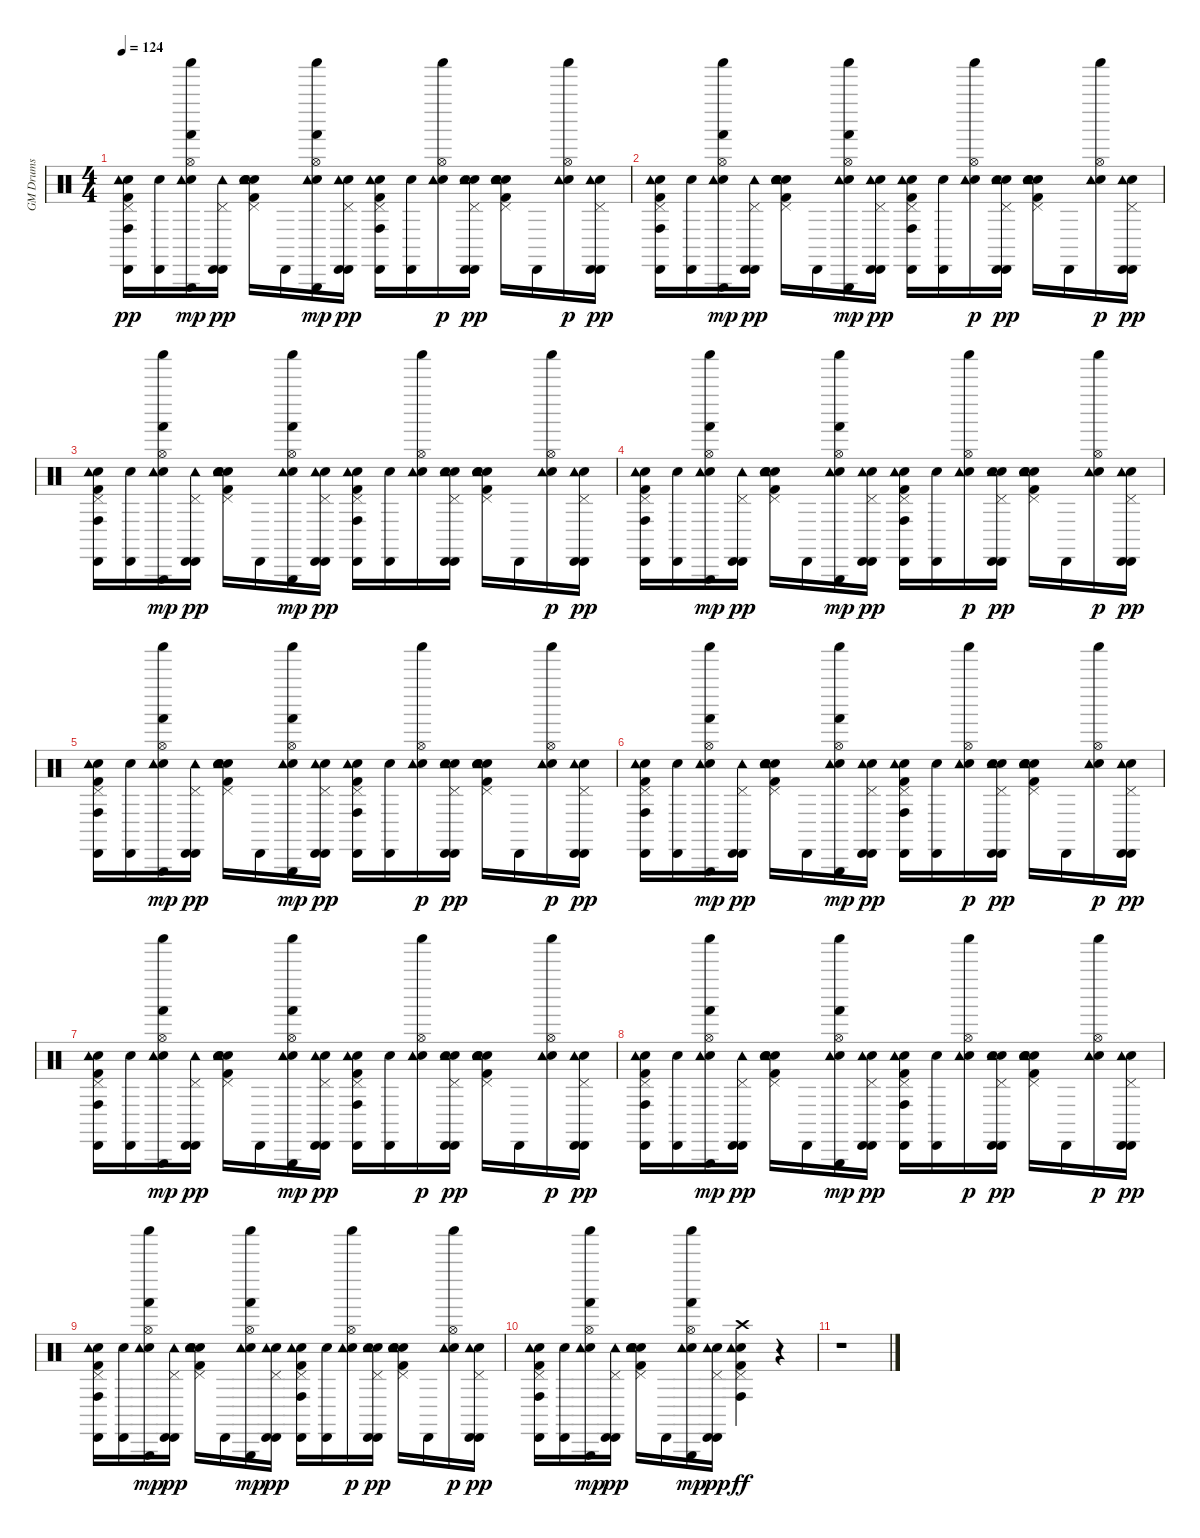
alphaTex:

\track ("GM Drums" "GM Drums") {instrument percussion}
\staff {score}
\articulation defaults
\ts (4 4)
\tempo 124
\clef neutral
\ks c
("Snare (hit)" "Kick (hit) 2" "Pedal Hi-Hat (hit)" "Tambourine (hit)" "Conga high (hit)" "Cabasa (hit)").16{dy pp} ("Snare (hit)" "Cabasa (hit)").16 ("Snare (hit)" "Hi-Hat (open)" "Tambourine (hit)" "Hand (hit)" "Triangle (hit)" "Shaker (hit)").16{dy mp} ("Pedal Hi-Hat (hit)" "Tambourine (hit)" "Cabasa (hit)" "Cabasa (hit)").16{dy pp} ("Snare (hit)" "Kick (hit) 2" "Snare (hit) 2" "Hand Clap (hit)" "Pedal Hi-Hat (hit)" "Tambourine (hit)").16 "Cabasa (hit)".16 ("Snare (hit)" "Hi-Hat (open)" "Tambourine (hit)" "Hand (hit)" "Triangle (hit)" "Shaker (hit)").16{dy mp} ("Snare (hit)" "Pedal Hi-Hat (hit)" "Tambourine (hit)" "Cabasa (hit)" "Cabasa (hit)").16{dy pp} ("Snare (hit)" "Kick (hit) 2" "Pedal Hi-Hat (hit)" "Tambourine (hit)" "Conga high (hit)" "Cabasa (hit)").16 ("Snare (hit)" "Cabasa (hit)").16 ("Snare (hit)" "Hi-Hat (open)" "Tambourine (hit)" "Shaker (hit)").16{dy p} ("Snare (hit) 2" "Hand Clap (hit)" "Pedal Hi-Hat (hit)" "Tambourine (hit)" "Cabasa (hit)" "Cabasa (hit)").16{dy pp} ("Snare (hit)" "Kick (hit) 2" "Snare (hit) 2" "Hand Clap (hit)" "Pedal Hi-Hat (hit)" "Tambourine (hit)").16 "Cabasa (hit)".16 ("Snare (hit)" "Hi-Hat (open)" "Tambourine (hit)" "Shaker (hit)").16{dy p} ("Snare (hit)" "Pedal Hi-Hat (hit)" "Tambourine (hit)" "Cabasa (hit)" "Cabasa (hit)").16{dy pp} |
("Snare (hit)" "Kick (hit) 2" "Pedal Hi-Hat (hit)" "Tambourine (hit)" "Conga high (hit)" "Cabasa (hit)").16 ("Snare (hit)" "Cabasa (hit)").16 ("Snare (hit)" "Hi-Hat (open)" "Tambourine (hit)" "Hand (hit)" "Triangle (hit)" "Shaker (hit)").16{dy mp} ("Pedal Hi-Hat (hit)" "Tambourine (hit)" "Cabasa (hit)" "Cabasa (hit)").16{dy pp} ("Snare (hit)" "Kick (hit) 2" "Snare (hit) 2" "Hand Clap (hit)" "Pedal Hi-Hat (hit)" "Tambourine (hit)").16 "Cabasa (hit)".16 ("Snare (hit)" "Hi-Hat (open)" "Tambourine (hit)" "Hand (hit)" "Triangle (hit)" "Shaker (hit)").16{dy mp} ("Snare (hit)" "Pedal Hi-Hat (hit)" "Tambourine (hit)" "Cabasa (hit)" "Cabasa (hit)").16{dy pp} ("Snare (hit)" "Kick (hit) 2" "Pedal Hi-Hat (hit)" "Tambourine (hit)" "Conga high (hit)" "Cabasa (hit)").16 ("Snare (hit)" "Cabasa (hit)").16 ("Snare (hit)" "Hi-Hat (open)" "Tambourine (hit)" "Shaker (hit)").16{dy p} ("Snare (hit) 2" "Hand Clap (hit)" "Pedal Hi-Hat (hit)" "Tambourine (hit)" "Cabasa (hit)" "Cabasa (hit)").16{dy pp} ("Snare (hit)" "Kick (hit) 2" "Snare (hit) 2" "Hand Clap (hit)" "Pedal Hi-Hat (hit)" "Tambourine (hit)").16 "Cabasa (hit)".16 ("Snare (hit)" "Hi-Hat (open)" "Tambourine (hit)" "Shaker (hit)").16{dy p} ("Snare (hit)" "Pedal Hi-Hat (hit)" "Tambourine (hit)" "Cabasa (hit)" "Cabasa (hit)").16{dy pp} |
("Snare (hit)" "Kick (hit) 2" "Pedal Hi-Hat (hit)" "Tambourine (hit)" "Conga high (hit)" "Cabasa (hit)").16 ("Snare (hit)" "Cabasa (hit)").16 ("Snare (hit)" "Hi-Hat (open)" "Tambourine (hit)" "Hand (hit)" "Triangle (hit)" "Shaker (hit)").16{dy mp} ("Pedal Hi-Hat (hit)" "Tambourine (hit)" "Cabasa (hit)" "Cabasa (hit)").16{dy pp} ("Snare (hit)" "Kick (hit) 2" "Snare (hit) 2" "Hand Clap (hit)" "Pedal Hi-Hat (hit)" "Tambourine (hit)").16 "Cabasa (hit)".16 ("Snare (hit)" "Hi-Hat (open)" "Tambourine (hit)" "Hand (hit)" "Triangle (hit)" "Shaker (hit)").16{dy mp} ("Snare (hit)" "Pedal Hi-Hat (hit)" "Tambourine (hit)" "Cabasa (hit)" "Cabasa (hit)").16{dy pp} ("Snare (hit)" "Kick (hit) 2" "Pedal Hi-Hat (hit)" "Tambourine (hit)" "Conga high (hit)" "Cabasa (hit)").16 ("Snare (hit)" "Cabasa (hit)").16 ("Snare (hit)" "Hi-Hat (open)" "Tambourine (hit)" "Shaker (hit)").16 ("Snare (hit) 2" "Hand Clap (hit)" "Pedal Hi-Hat (hit)" "Tambourine (hit)" "Cabasa (hit)" "Cabasa (hit)").16 ("Snare (hit)" "Kick (hit) 2" "Snare (hit) 2" "Hand Clap (hit)" "Pedal Hi-Hat (hit)" "Tambourine (hit)").16 "Cabasa (hit)".16 ("Snare (hit)" "Hi-Hat (open)" "Tambourine (hit)" "Shaker (hit)").16{dy p} ("Snare (hit)" "Pedal Hi-Hat (hit)" "Tambourine (hit)" "Cabasa (hit)" "Cabasa (hit)").16{dy pp} |
("Snare (hit)" "Kick (hit) 2" "Pedal Hi-Hat (hit)" "Tambourine (hit)" "Conga high (hit)" "Cabasa (hit)").16 ("Snare (hit)" "Cabasa (hit)").16 ("Snare (hit)" "Hi-Hat (open)" "Tambourine (hit)" "Hand (hit)" "Triangle (hit)" "Shaker (hit)").16{dy mp} ("Pedal Hi-Hat (hit)" "Tambourine (hit)" "Cabasa (hit)" "Cabasa (hit)").16{dy pp} ("Snare (hit)" "Kick (hit) 2" "Snare (hit) 2" "Hand Clap (hit)" "Pedal Hi-Hat (hit)" "Tambourine (hit)").16 "Cabasa (hit)".16 ("Snare (hit)" "Hi-Hat (open)" "Tambourine (hit)" "Hand (hit)" "Triangle (hit)" "Shaker (hit)").16{dy mp} ("Snare (hit)" "Pedal Hi-Hat (hit)" "Tambourine (hit)" "Cabasa (hit)" "Cabasa (hit)").16{dy pp} ("Snare (hit)" "Kick (hit) 2" "Pedal Hi-Hat (hit)" "Tambourine (hit)" "Conga high (hit)" "Cabasa (hit)").16 ("Snare (hit)" "Cabasa (hit)").16 ("Snare (hit)" "Hi-Hat (open)" "Tambourine (hit)" "Shaker (hit)").16{dy p} ("Snare (hit) 2" "Hand Clap (hit)" "Pedal Hi-Hat (hit)" "Tambourine (hit)" "Cabasa (hit)" "Cabasa (hit)").16{dy pp} ("Snare (hit)" "Kick (hit) 2" "Snare (hit) 2" "Hand Clap (hit)" "Pedal Hi-Hat (hit)" "Tambourine (hit)").16 "Cabasa (hit)".16 ("Snare (hit)" "Hi-Hat (open)" "Tambourine (hit)" "Shaker (hit)").16{dy p} ("Snare (hit)" "Pedal Hi-Hat (hit)" "Tambourine (hit)" "Cabasa (hit)" "Cabasa (hit)").16{dy pp} |
("Snare (hit)" "Kick (hit) 2" "Pedal Hi-Hat (hit)" "Tambourine (hit)" "Conga high (hit)" "Cabasa (hit)").16 ("Snare (hit)" "Cabasa (hit)").16 ("Snare (hit)" "Hi-Hat (open)" "Tambourine (hit)" "Hand (hit)" "Triangle (hit)" "Shaker (hit)").16{dy mp} ("Pedal Hi-Hat (hit)" "Tambourine (hit)" "Cabasa (hit)" "Cabasa (hit)").16{dy pp} ("Snare (hit)" "Kick (hit) 2" "Snare (hit) 2" "Hand Clap (hit)" "Pedal Hi-Hat (hit)" "Tambourine (hit)").16 "Cabasa (hit)".16 ("Snare (hit)" "Hi-Hat (open)" "Tambourine (hit)" "Hand (hit)" "Triangle (hit)" "Shaker (hit)").16{dy mp} ("Snare (hit)" "Pedal Hi-Hat (hit)" "Tambourine (hit)" "Cabasa (hit)" "Cabasa (hit)").16{dy pp} ("Snare (hit)" "Kick (hit) 2" "Pedal Hi-Hat (hit)" "Tambourine (hit)" "Conga high (hit)" "Cabasa (hit)").16 ("Snare (hit)" "Cabasa (hit)").16 ("Snare (hit)" "Hi-Hat (open)" "Tambourine (hit)" "Shaker (hit)").16{dy p} ("Snare (hit) 2" "Hand Clap (hit)" "Pedal Hi-Hat (hit)" "Tambourine (hit)" "Cabasa (hit)" "Cabasa (hit)").16{dy pp} ("Snare (hit)" "Kick (hit) 2" "Snare (hit) 2" "Hand Clap (hit)" "Pedal Hi-Hat (hit)" "Tambourine (hit)").16 "Cabasa (hit)".16 ("Snare (hit)" "Hi-Hat (open)" "Tambourine (hit)" "Shaker (hit)").16{dy p} ("Snare (hit)" "Pedal Hi-Hat (hit)" "Tambourine (hit)" "Cabasa (hit)" "Cabasa (hit)").16{dy pp} |
("Snare (hit)" "Kick (hit) 2" "Pedal Hi-Hat (hit)" "Tambourine (hit)" "Conga high (hit)" "Cabasa (hit)").16 ("Snare (hit)" "Cabasa (hit)").16 ("Snare (hit)" "Hi-Hat (open)" "Tambourine (hit)" "Hand (hit)" "Triangle (hit)" "Shaker (hit)").16{dy mp} ("Pedal Hi-Hat (hit)" "Tambourine (hit)" "Cabasa (hit)" "Cabasa (hit)").16{dy pp} ("Snare (hit)" "Kick (hit) 2" "Snare (hit) 2" "Hand Clap (hit)" "Pedal Hi-Hat (hit)" "Tambourine (hit)").16 "Cabasa (hit)".16 ("Snare (hit)" "Hi-Hat (open)" "Tambourine (hit)" "Hand (hit)" "Triangle (hit)" "Shaker (hit)").16{dy mp} ("Snare (hit)" "Pedal Hi-Hat (hit)" "Tambourine (hit)" "Cabasa (hit)" "Cabasa (hit)").16{dy pp} ("Snare (hit)" "Kick (hit) 2" "Pedal Hi-Hat (hit)" "Tambourine (hit)" "Conga high (hit)" "Cabasa (hit)").16 ("Snare (hit)" "Cabasa (hit)").16 ("Snare (hit)" "Hi-Hat (open)" "Tambourine (hit)" "Shaker (hit)").16{dy p} ("Snare (hit) 2" "Hand Clap (hit)" "Pedal Hi-Hat (hit)" "Tambourine (hit)" "Cabasa (hit)" "Cabasa (hit)").16{dy pp} ("Snare (hit)" "Kick (hit) 2" "Snare (hit) 2" "Hand Clap (hit)" "Pedal Hi-Hat (hit)" "Tambourine (hit)").16 "Cabasa (hit)".16 ("Snare (hit)" "Hi-Hat (open)" "Tambourine (hit)" "Shaker (hit)").16{dy p} ("Snare (hit)" "Pedal Hi-Hat (hit)" "Tambourine (hit)" "Cabasa (hit)" "Cabasa (hit)").16{dy pp} |
("Snare (hit)" "Kick (hit) 2" "Pedal Hi-Hat (hit)" "Tambourine (hit)" "Conga high (hit)" "Cabasa (hit)").16 ("Snare (hit)" "Cabasa (hit)").16 ("Snare (hit)" "Hi-Hat (open)" "Tambourine (hit)" "Hand (hit)" "Triangle (hit)" "Shaker (hit)").16{dy mp} ("Pedal Hi-Hat (hit)" "Tambourine (hit)" "Cabasa (hit)" "Cabasa (hit)").16{dy pp} ("Snare (hit)" "Kick (hit) 2" "Snare (hit) 2" "Hand Clap (hit)" "Pedal Hi-Hat (hit)" "Tambourine (hit)").16 "Cabasa (hit)".16 ("Snare (hit)" "Hi-Hat (open)" "Tambourine (hit)" "Hand (hit)" "Triangle (hit)" "Shaker (hit)").16{dy mp} ("Snare (hit)" "Pedal Hi-Hat (hit)" "Tambourine (hit)" "Cabasa (hit)" "Cabasa (hit)").16{dy pp} ("Snare (hit)" "Kick (hit) 2" "Pedal Hi-Hat (hit)" "Tambourine (hit)" "Conga high (hit)" "Cabasa (hit)").16 ("Snare (hit)" "Cabasa (hit)").16 ("Snare (hit)" "Hi-Hat (open)" "Tambourine (hit)" "Shaker (hit)").16{dy p} ("Snare (hit) 2" "Hand Clap (hit)" "Pedal Hi-Hat (hit)" "Tambourine (hit)" "Cabasa (hit)" "Cabasa (hit)").16{dy pp} ("Snare (hit)" "Kick (hit) 2" "Snare (hit) 2" "Hand Clap (hit)" "Pedal Hi-Hat (hit)" "Tambourine (hit)").16 "Cabasa (hit)".16 ("Snare (hit)" "Hi-Hat (open)" "Tambourine (hit)" "Shaker (hit)").16{dy p} ("Snare (hit)" "Pedal Hi-Hat (hit)" "Tambourine (hit)" "Cabasa (hit)" "Cabasa (hit)").16{dy pp} |
("Snare (hit)" "Kick (hit) 2" "Pedal Hi-Hat (hit)" "Tambourine (hit)" "Conga high (hit)" "Cabasa (hit)").16 ("Snare (hit)" "Cabasa (hit)").16 ("Snare (hit)" "Hi-Hat (open)" "Tambourine (hit)" "Hand (hit)" "Triangle (hit)" "Shaker (hit)").16{dy mp} ("Pedal Hi-Hat (hit)" "Tambourine (hit)" "Cabasa (hit)" "Cabasa (hit)").16{dy pp} ("Snare (hit)" "Kick (hit) 2" "Snare (hit) 2" "Hand Clap (hit)" "Pedal Hi-Hat (hit)" "Tambourine (hit)").16 "Cabasa (hit)".16 ("Snare (hit)" "Hi-Hat (open)" "Tambourine (hit)" "Hand (hit)" "Triangle (hit)" "Shaker (hit)").16{dy mp} ("Snare (hit)" "Pedal Hi-Hat (hit)" "Tambourine (hit)" "Cabasa (hit)" "Cabasa (hit)").16{dy pp} ("Snare (hit)" "Kick (hit) 2" "Pedal Hi-Hat (hit)" "Tambourine (hit)" "Conga high (hit)" "Cabasa (hit)").16 ("Snare (hit)" "Cabasa (hit)").16 ("Snare (hit)" "Hi-Hat (open)" "Tambourine (hit)" "Shaker (hit)").16{dy p} ("Snare (hit) 2" "Hand Clap (hit)" "Pedal Hi-Hat (hit)" "Tambourine (hit)" "Cabasa (hit)" "Cabasa (hit)").16{dy pp} ("Snare (hit)" "Kick (hit) 2" "Snare (hit) 2" "Hand Clap (hit)" "Pedal Hi-Hat (hit)" "Tambourine (hit)").16 "Cabasa (hit)".16 ("Snare (hit)" "Hi-Hat (open)" "Tambourine (hit)" "Shaker (hit)").16{dy p} ("Snare (hit)" "Pedal Hi-Hat (hit)" "Tambourine (hit)" "Cabasa (hit)" "Cabasa (hit)").16{dy pp} |
("Snare (hit)" "Kick (hit) 2" "Pedal Hi-Hat (hit)" "Tambourine (hit)" "Conga high (hit)" "Cabasa (hit)").16 ("Snare (hit)" "Cabasa (hit)").16 ("Snare (hit)" "Hi-Hat (open)" "Tambourine (hit)" "Hand (hit)" "Triangle (hit)" "Shaker (hit)").16{dy mp} ("Pedal Hi-Hat (hit)" "Tambourine (hit)" "Cabasa (hit)" "Cabasa (hit)").16{dy pp} ("Snare (hit)" "Kick (hit) 2" "Snare (hit) 2" "Hand Clap (hit)" "Pedal Hi-Hat (hit)" "Tambourine (hit)").16 "Cabasa (hit)".16 ("Snare (hit)" "Hi-Hat (open)" "Tambourine (hit)" "Hand (hit)" "Triangle (hit)" "Shaker (hit)").16{dy mp} ("Snare (hit)" "Pedal Hi-Hat (hit)" "Tambourine (hit)" "Cabasa (hit)" "Cabasa (hit)").16{dy pp} ("Snare (hit)" "Kick (hit) 2" "Pedal Hi-Hat (hit)" "Tambourine (hit)" "Conga high (hit)" "Cabasa (hit)").16 ("Snare (hit)" "Cabasa (hit)").16 ("Snare (hit)" "Hi-Hat (open)" "Tambourine (hit)" "Shaker (hit)").16{dy p} ("Snare (hit) 2" "Hand Clap (hit)" "Pedal Hi-Hat (hit)" "Tambourine (hit)" "Cabasa (hit)" "Cabasa (hit)").16{dy pp} ("Snare (hit)" "Kick (hit) 2" "Snare (hit) 2" "Hand Clap (hit)" "Pedal Hi-Hat (hit)" "Tambourine (hit)").16 "Cabasa (hit)".16 ("Snare (hit)" "Hi-Hat (open)" "Tambourine (hit)" "Shaker (hit)").16{dy p} ("Snare (hit)" "Pedal Hi-Hat (hit)" "Tambourine (hit)" "Cabasa (hit)" "Cabasa (hit)").16{dy pp} |
("Snare (hit)" "Kick (hit) 2" "Pedal Hi-Hat (hit)" "Tambourine (hit)" "Conga high (hit)" "Cabasa (hit)").16 ("Snare (hit)" "Cabasa (hit)").16 ("Snare (hit)" "Hi-Hat (open)" "Tambourine (hit)" "Hand (hit)" "Triangle (hit)" "Shaker (hit)").16{dy mp} ("Pedal Hi-Hat (hit)" "Tambourine (hit)" "Cabasa (hit)" "Cabasa (hit)").16{dy pp} ("Snare (hit)" "Kick (hit) 2" "Snare (hit) 2" "Hand Clap (hit)" "Pedal Hi-Hat (hit)" "Tambourine (hit)").16 "Cabasa (hit)".16 ("Snare (hit)" "Hi-Hat (open)" "Tambourine (hit)" "Hand (hit)" "Triangle (hit)" "Shaker (hit)").16{dy mp} ("Snare (hit)" "Pedal Hi-Hat (hit)" "Tambourine (hit)" "Cabasa (hit)" "Cabasa (hit)").16{dy pp} ("Snare (hit)" "Kick (hit) 2" "Pedal Hi-Hat (hit)" "Crash high (hit)" "Tambourine (hit)" "Conga high (hit)").4{dy ff} r.4 |
r.1
